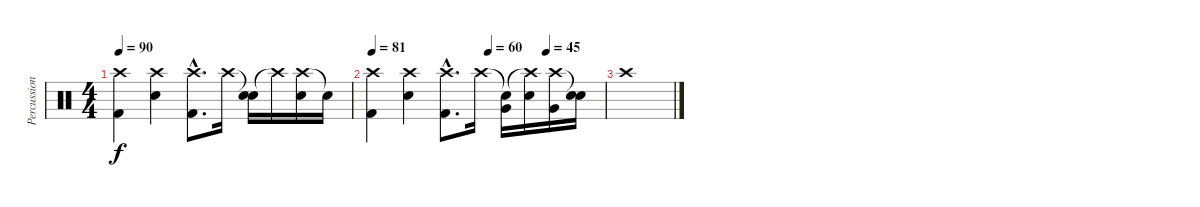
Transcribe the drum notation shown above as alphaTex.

\track ("Percussion" "Percussion") {instrument percussion}
\staff {score}
\articulation defaults
\ts (4 4)
\tempo 90
\clef neutral
\ks c
("Crash high (hit)" "Kick (hit) 2").4{dy f} ("Crash high (hit)" "Electric Snare (hit)").4 ("Crash high (hit)"{hac} "Kick (hit) 2"{hac}).8{d} "Crash high (hit)".16 ("Snare (hit)"{t} "Electric Snare (hit)").16 "Crash high (hit)"{t}.16 ("Crash high (hit)" "Electric Snare (hit)").16 "Snare (hit)"{t}.16 |
\tempo 81
\tempo (60 0.5)
\tempo (45 0.75)
("Crash high (hit)" "Kick (hit) 2").4 ("Crash high (hit)" "Electric Snare (hit)").4 ("Crash high (hit)"{hac} "Kick (hit) 2"{hac}).8{d} "Crash high (hit)".16 ("Snare (hit)"{t} "Very Low Tom (hit)").16 ("Crash high (hit)"{t} "Electric Snare (hit)").16 ("Crash high (hit)" "Very Low Tom (hit)").16 ("Snare (hit)"{t} "Electric Snare (hit)").16 |
"Crash high (hit)".1
